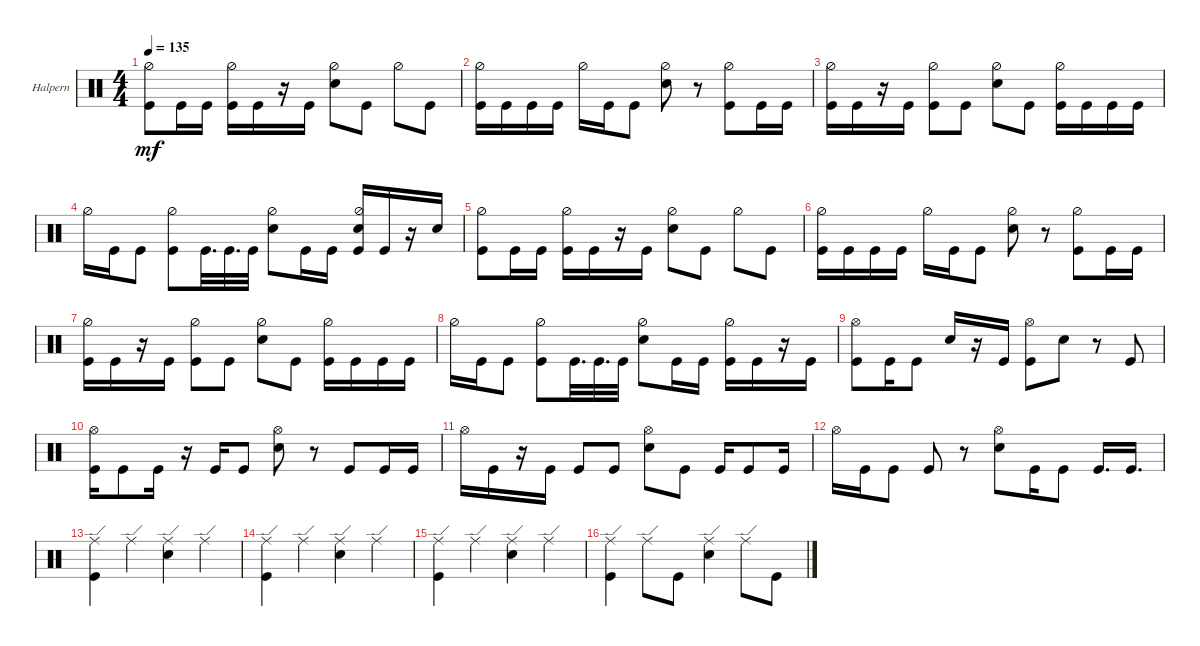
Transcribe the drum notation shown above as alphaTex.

\defaultSystemsLayout 4
\bracketExtendMode groupsimilarinstruments
\multiBarRest
\firstSystemTrackNameOrientation horizontal
\otherSystemsTrackNameOrientation horizontal
\track ("Matt Halpern" "Halpern") {instrument percussion}
\staff {score}
\articulation defaults
\ts (4 4)
\tempo 135
\clef neutral
\ks c
("Kick (hit)" "Hi-Hat (half)").8{dy mf} "Kick (hit)".16 "Kick (hit)".16 ("Kick (hit)" "Hi-Hat (half)").16 "Kick (hit)".16 r.16 "Kick (hit)".16 ("Hi-Hat (half)" "Snare (hit) 2").8 "Kick (hit)".8 "Hi-Hat (half)".8 "Kick (hit)".8 |
("Kick (hit)" "Hi-Hat (half)").16 "Kick (hit)".16 "Kick (hit)".16 "Kick (hit)".16 "Hi-Hat (half)".16 "Kick (hit)".16 "Kick (hit)".8 ("Hi-Hat (half)" "Snare (hit) 2").8 r.8 ("Kick (hit)" "Hi-Hat (half)").8 "Kick (hit)".16 "Kick (hit)".16 |
("Kick (hit)" "Hi-Hat (half)").16 "Kick (hit)".16 r.16 "Kick (hit)".16 ("Kick (hit)" "Hi-Hat (half)").8 "Kick (hit)".8 ("Hi-Hat (half)" "Snare (hit) 2").8 "Kick (hit)".8 ("Kick (hit)" "Hi-Hat (half)").16 "Kick (hit)".16 "Kick (hit)".16 "Kick (hit)".16 |
"Hi-Hat (half)".16 "Kick (hit)".16 "Kick (hit)".8 ("Kick (hit)" "Hi-Hat (half)").8 "Kick (hit)".32{d} "Kick (hit)".32{d} "Kick (hit)".32 ("Hi-Hat (half)" "Snare (hit) 2").8 "Kick (hit)".16 "Kick (hit)".16 ("Kick (hit)" "Hi-Hat (half)" "Snare (hit) 2").16 "Kick (hit)".16 r.16 "Snare (hit) 2".16 |
("Kick (hit)" "Hi-Hat (half)").8 "Kick (hit)".16 "Kick (hit)".16 ("Kick (hit)" "Hi-Hat (half)").16 "Kick (hit)".16 r.16 "Kick (hit)".16 ("Hi-Hat (half)" "Snare (hit) 2").8 "Kick (hit)".8 "Hi-Hat (half)".8 "Kick (hit)".8 |
("Kick (hit)" "Hi-Hat (half)").16 "Kick (hit)".16 "Kick (hit)".16 "Kick (hit)".16 "Hi-Hat (half)".16 "Kick (hit)".16 "Kick (hit)".8 ("Hi-Hat (half)" "Snare (hit) 2").8 r.8 ("Kick (hit)" "Hi-Hat (half)").8 "Kick (hit)".16 "Kick (hit)".16 |
("Kick (hit)" "Hi-Hat (half)").16 "Kick (hit)".16 r.16 "Kick (hit)".16 ("Kick (hit)" "Hi-Hat (half)").8 "Kick (hit)".8 ("Hi-Hat (half)" "Snare (hit) 2").8 "Kick (hit)".8 ("Kick (hit)" "Hi-Hat (half)").16 "Kick (hit)".16 "Kick (hit)".16 "Kick (hit)".16 |
"Hi-Hat (half)".16 "Kick (hit)".16 "Kick (hit)".8 ("Kick (hit)" "Hi-Hat (half)").8 "Kick (hit)".32{d} "Kick (hit)".32{d} "Kick (hit)".32 ("Hi-Hat (half)" "Snare (hit) 2").8 "Kick (hit)".16 "Kick (hit)".16 ("Kick (hit)" "Hi-Hat (half)").16 "Kick (hit)".16 r.16 "Kick (hit)".16 |
("Kick (hit)" "Hi-Hat (open)").8 "Kick (hit)".16 "Kick (hit)".8 "Snare (hit) 2".16 r.16 "Kick (hit)".16 ("Hi-Hat (open)" "Kick (hit)").8 "Snare (hit) 2".8 r.8 "Kick (hit)".8 |
("Kick (hit)" "Hi-Hat (open)").16 "Kick (hit)".8 "Kick (hit)".16 r.16 "Kick (hit)".16 "Kick (hit)".8 ("Hi-Hat (open)" "Snare (hit) 2").8 r.8 "Kick (hit)".8 "Kick (hit)".16 "Kick (hit)".16 |
"Hi-Hat (open)".16 "Kick (hit)".16 r.16 "Kick (hit)".16 "Kick (hit)".8 "Kick (hit)".8 ("Hi-Hat (open)" "Snare (hit) 2").8 "Kick (hit)".8 "Kick (hit)".16 "Kick (hit)".8 "Kick (hit)".16 |
"Hi-Hat (open)".16 "Kick (hit)".16 "Kick (hit)".8 "Kick (hit)".8 r.8 ("Hi-Hat (open)" "Snare (hit) 2").8 "Kick (hit)".16 "Kick (hit)".8 "Kick (hit)".16{d} "Kick (hit)".16{d} |
("Ride (edge)" "Kick (hit)").4 "Ride (edge)".4 ("Ride (edge)" "Snare (hit) 2").4 "Ride (edge)".4 |
("Ride (edge)" "Kick (hit)").4 "Ride (edge)".4 ("Ride (edge)" "Snare (hit) 2").4 "Ride (edge)".4 |
("Ride (edge)" "Kick (hit)").4 "Ride (edge)".4 ("Ride (edge)" "Snare (hit) 2").4 "Ride (edge)".4 |
("Ride (edge)" "Kick (hit)").4 "Ride (edge)".8 "Kick (hit)".8 ("Snare (hit) 2" "Ride (edge)").4 "Ride (edge)".8 "Kick (hit)".8
